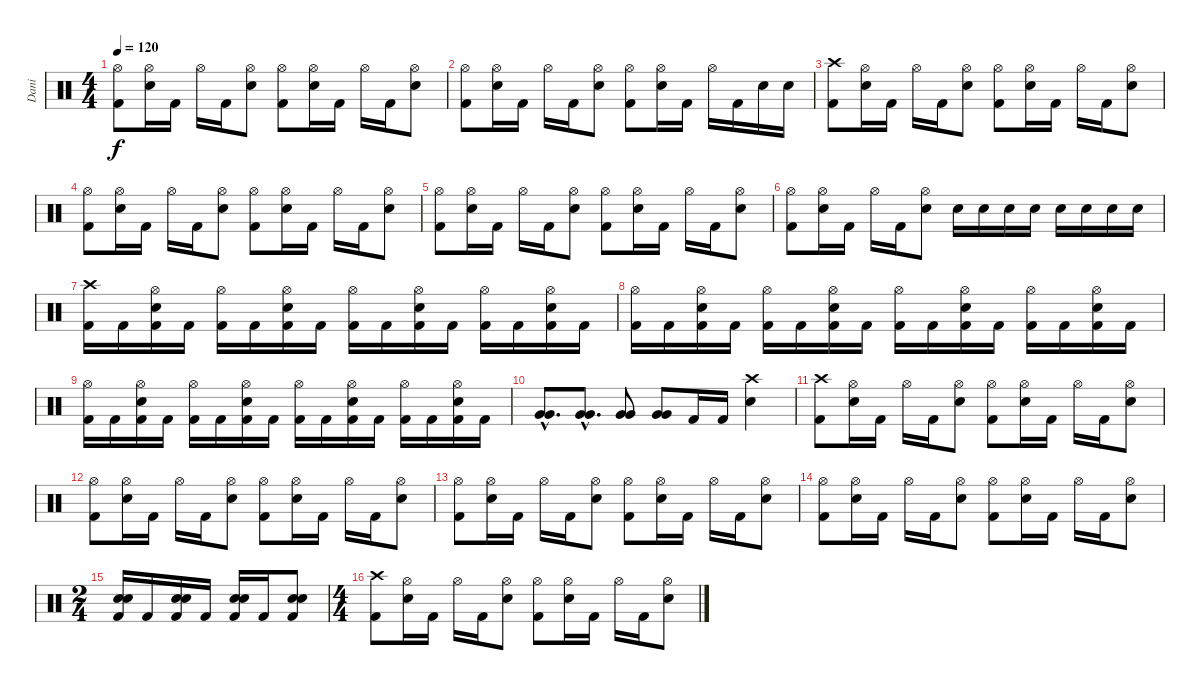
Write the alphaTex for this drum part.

\track ("Dani" "Dani") {instrument percussion}
\staff {score}
\articulation defaults
\ts (4 4)
\tempo 120
\clef neutral
\ks c
("Hi-Hat (open)" "Kick (hit) 2").8{dy f} ("Hi-Hat (open)" "Snare (hit) 2").16 "Kick (hit) 2".16 "Hi-Hat (open)".16 "Kick (hit) 2".16 ("Hi-Hat (open)" "Snare (hit) 2").8 ("Hi-Hat (open)" "Kick (hit) 2").8 ("Hi-Hat (open)" "Snare (hit) 2").16 "Kick (hit) 2".16 "Hi-Hat (open)".16 "Kick (hit) 2".16 ("Hi-Hat (open)" "Snare (hit) 2").8 |
("Hi-Hat (open)" "Kick (hit) 2").8 ("Hi-Hat (open)" "Snare (hit) 2").16 "Kick (hit) 2".16 "Hi-Hat (open)".16 "Kick (hit) 2".16 ("Hi-Hat (open)" "Snare (hit) 2").8 ("Hi-Hat (open)" "Kick (hit) 2").8 ("Hi-Hat (open)" "Snare (hit) 2").16 "Kick (hit) 2".16 "Hi-Hat (open)".16 "Kick (hit) 2".16 "Snare (hit) 2".16 "Snare (hit) 2".16 |
("Crash high (hit)" "Kick (hit) 2").8 ("Hi-Hat (open)" "Snare (hit) 2").16 "Kick (hit) 2".16 "Hi-Hat (open)".16 "Kick (hit) 2".16 ("Hi-Hat (open)" "Snare (hit) 2").8 ("Hi-Hat (open)" "Kick (hit) 2").8 ("Hi-Hat (open)" "Snare (hit) 2").16 "Kick (hit) 2".16 "Hi-Hat (open)".16 "Kick (hit) 2".16 ("Hi-Hat (open)" "Snare (hit) 2").8 |
("Hi-Hat (open)" "Kick (hit) 2").8 ("Hi-Hat (open)" "Snare (hit) 2").16 "Kick (hit) 2".16 "Hi-Hat (open)".16 "Kick (hit) 2".16 ("Hi-Hat (open)" "Snare (hit) 2").8 ("Hi-Hat (open)" "Kick (hit) 2").8 ("Hi-Hat (open)" "Snare (hit) 2").16 "Kick (hit) 2".16 "Hi-Hat (open)".16 "Kick (hit) 2".16 ("Hi-Hat (open)" "Snare (hit) 2").8 |
("Hi-Hat (open)" "Kick (hit) 2").8 ("Hi-Hat (open)" "Snare (hit) 2").16 "Kick (hit) 2".16 "Hi-Hat (open)".16 "Kick (hit) 2".16 ("Hi-Hat (open)" "Snare (hit) 2").8 ("Hi-Hat (open)" "Kick (hit) 2").8 ("Hi-Hat (open)" "Snare (hit) 2").16 "Kick (hit) 2".16 "Hi-Hat (open)".16 "Kick (hit) 2".16 ("Hi-Hat (open)" "Snare (hit) 2").8 |
("Hi-Hat (open)" "Kick (hit) 2").8 ("Hi-Hat (open)" "Snare (hit) 2").16 "Kick (hit) 2".16 "Hi-Hat (open)".16 "Kick (hit) 2".16 ("Hi-Hat (open)" "Snare (hit) 2").8 "Snare (hit) 2".16 "Snare (hit) 2".16 "Snare (hit) 2".16 "Snare (hit) 2".16 "Snare (hit) 2".16 "Snare (hit) 2".16 "Snare (hit) 2".16 "Snare (hit) 2".16 |
("Crash high (hit)" "Kick (hit) 2").16 "Kick (hit) 2".16 ("Hi-Hat (open)" "Snare (hit) 2" "Kick (hit) 2").16 "Kick (hit) 2".16 ("Hi-Hat (open)" "Kick (hit) 2").16 "Kick (hit) 2".16 ("Hi-Hat (open)" "Snare (hit) 2" "Kick (hit) 2").16 "Kick (hit) 2".16 ("Hi-Hat (open)" "Kick (hit) 2").16 "Kick (hit) 2".16 ("Hi-Hat (open)" "Snare (hit) 2" "Kick (hit) 2").16 "Kick (hit) 2".16 ("Hi-Hat (open)" "Kick (hit) 2").16 "Kick (hit) 2".16 ("Hi-Hat (open)" "Snare (hit) 2" "Kick (hit) 2").16 "Kick (hit) 2".16 |
("Hi-Hat (open)" "Kick (hit) 2").16 "Kick (hit) 2".16 ("Hi-Hat (open)" "Snare (hit) 2" "Kick (hit) 2").16 "Kick (hit) 2".16 ("Hi-Hat (open)" "Kick (hit) 2").16 "Kick (hit) 2".16 ("Hi-Hat (open)" "Snare (hit) 2" "Kick (hit) 2").16 "Kick (hit) 2".16 ("Hi-Hat (open)" "Kick (hit) 2").16 "Kick (hit) 2".16 ("Hi-Hat (open)" "Snare (hit) 2" "Kick (hit) 2").16 "Kick (hit) 2".16 ("Hi-Hat (open)" "Kick (hit) 2").16 "Kick (hit) 2".16 ("Hi-Hat (open)" "Snare (hit) 2" "Kick (hit) 2").16 "Kick (hit) 2".16 |
("Hi-Hat (open)" "Kick (hit) 2").16 "Kick (hit) 2".16 ("Hi-Hat (open)" "Snare (hit) 2" "Kick (hit) 2").16 "Kick (hit) 2".16 ("Hi-Hat (open)" "Kick (hit) 2").16 "Kick (hit) 2".16 ("Hi-Hat (open)" "Snare (hit) 2" "Kick (hit) 2").16 "Kick (hit) 2".16 ("Hi-Hat (open)" "Kick (hit) 2").16 "Kick (hit) 2".16 ("Hi-Hat (open)" "Snare (hit) 2" "Kick (hit) 2").16 "Kick (hit) 2".16 ("Hi-Hat (open)" "Kick (hit) 2").16 "Kick (hit) 2".16 ("Hi-Hat (open)" "Snare (hit) 2" "Kick (hit) 2").16 "Kick (hit) 2".16 |
("Very Low Tom (hit)"{hac} "Very Low Tom (hit)"{hac}).8{d bd 240} ("Very Low Tom (hit)"{hac} "Very Low Tom (hit)"{hac}).8{d bd 240} ("Very Low Tom (hit)" "Very Low Tom (hit)").8{bd 240} ("Very Low Tom (hit)" "Very Low Tom (hit)").8{bd 240} "Kick (hit) 2".16 "Kick (hit) 2".16 ("Crash high (hit)" "Snare (hit) 2").4 |
("Crash high (hit)" "Kick (hit) 2").8 ("Hi-Hat (open)" "Snare (hit) 2").16 "Kick (hit) 2".16 "Hi-Hat (open)".16 "Kick (hit) 2".16 ("Hi-Hat (open)" "Snare (hit) 2").8 ("Hi-Hat (open)" "Kick (hit) 2").8 ("Hi-Hat (open)" "Snare (hit) 2").16 "Kick (hit) 2".16 "Hi-Hat (open)".16 "Kick (hit) 2".16 ("Hi-Hat (open)" "Snare (hit) 2").8 |
("Hi-Hat (open)" "Kick (hit) 2").8 ("Hi-Hat (open)" "Snare (hit) 2").16 "Kick (hit) 2".16 "Hi-Hat (open)".16 "Kick (hit) 2".16 ("Hi-Hat (open)" "Snare (hit) 2").8 ("Hi-Hat (open)" "Kick (hit) 2").8 ("Hi-Hat (open)" "Snare (hit) 2").16 "Kick (hit) 2".16 "Hi-Hat (open)".16 "Kick (hit) 2".16 ("Hi-Hat (open)" "Snare (hit) 2").8 |
("Hi-Hat (open)" "Kick (hit) 2").8 ("Hi-Hat (open)" "Snare (hit) 2").16 "Kick (hit) 2".16 "Hi-Hat (open)".16 "Kick (hit) 2".16 ("Hi-Hat (open)" "Snare (hit) 2").8 ("Hi-Hat (open)" "Kick (hit) 2").8 ("Hi-Hat (open)" "Snare (hit) 2").16 "Kick (hit) 2".16 "Hi-Hat (open)".16 "Kick (hit) 2".16 ("Hi-Hat (open)" "Snare (hit) 2").8 |
("Hi-Hat (open)" "Kick (hit) 2").8 ("Hi-Hat (open)" "Snare (hit) 2").16 "Kick (hit) 2".16 "Hi-Hat (open)".16 "Kick (hit) 2".16 ("Hi-Hat (open)" "Snare (hit) 2").8 ("Hi-Hat (open)" "Kick (hit) 2").8 ("Hi-Hat (open)" "Snare (hit) 2").16 "Kick (hit) 2".16 "Hi-Hat (open)".16 "Kick (hit) 2".16 ("Hi-Hat (open)" "Snare (hit) 2").8 |
\ts (2 4)
("Snare (hit) 2" "Snare (hit) 2" "Kick (hit) 2").16{bd 240} "Kick (hit) 2".16 ("Snare (hit) 2" "Snare (hit) 2" "Kick (hit) 2").16{bd 240} "Kick (hit) 2".16 ("Snare (hit) 2" "Snare (hit) 2" "Kick (hit) 2").16{bd 240} "Kick (hit) 2".16 ("Snare (hit) 2" "Snare (hit) 2" "Kick (hit) 2").8{bd 240} |
\ts (4 4)
("Crash high (hit)" "Kick (hit) 2").8 ("Hi-Hat (open)" "Snare (hit) 2").16 "Kick (hit) 2".16 "Hi-Hat (open)".16 "Kick (hit) 2".16 ("Hi-Hat (open)" "Snare (hit) 2").8 ("Hi-Hat (open)" "Kick (hit) 2").8 ("Hi-Hat (open)" "Snare (hit) 2").16 "Kick (hit) 2".16 "Hi-Hat (open)".16 "Kick (hit) 2".16 ("Hi-Hat (open)" "Snare (hit) 2").8
